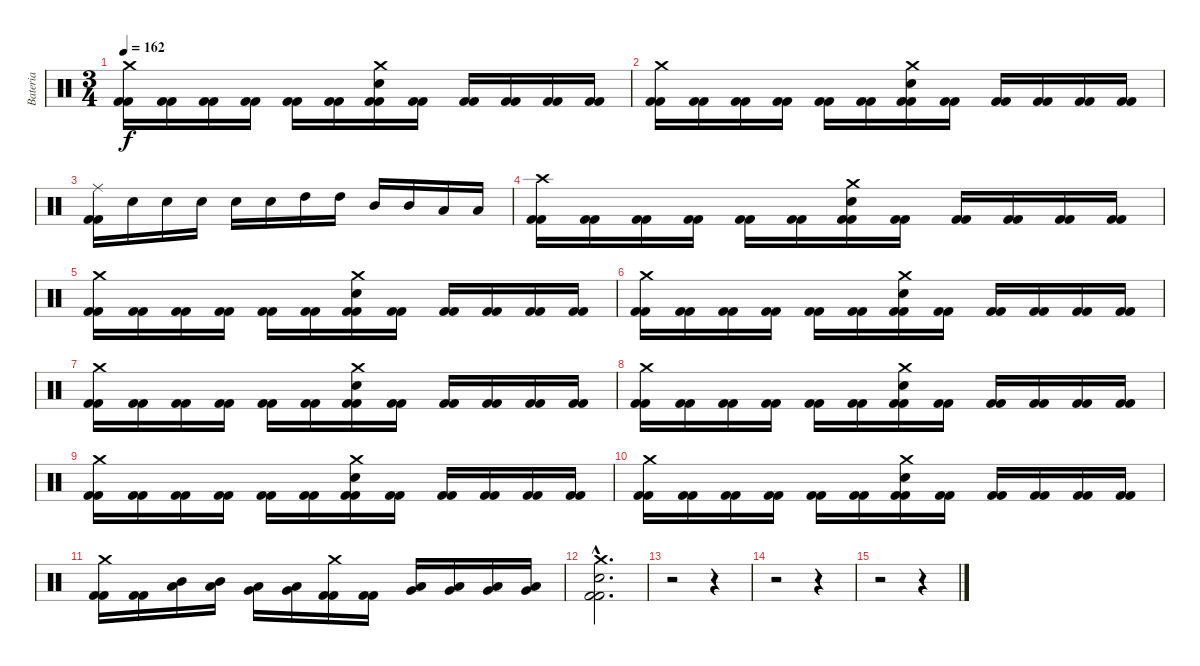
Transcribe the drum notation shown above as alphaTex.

\track ("Bateria" "Bateria") {instrument percussion}
\staff {score}
\articulation defaults
\ts (3 4)
\tempo 162
\clef neutral
\ks c
("Crash medium (hit)" "Kick (hit) 2" "Kick (hit) 2").16{dy f} ("Kick (hit) 2" "Kick (hit) 2").16 ("Kick (hit) 2" "Kick (hit) 2").16 ("Kick (hit) 2" "Kick (hit) 2").16 ("Kick (hit) 2" "Kick (hit) 2").16 ("Kick (hit) 2" "Kick (hit) 2").16 ("Crash medium (hit)" "Electric Snare (hit)" "Kick (hit) 2" "Kick (hit) 2").16 ("Kick (hit) 2" "Kick (hit) 2").16 ("Kick (hit) 2" "Kick (hit) 2").16 ("Kick (hit) 2" "Kick (hit) 2").16 ("Kick (hit) 2" "Kick (hit) 2").16 ("Kick (hit) 2" "Kick (hit) 2").16 |
("Crash medium (hit)" "Kick (hit) 2" "Kick (hit) 2").16 ("Kick (hit) 2" "Kick (hit) 2").16 ("Kick (hit) 2" "Kick (hit) 2").16 ("Kick (hit) 2" "Kick (hit) 2").16 ("Kick (hit) 2" "Kick (hit) 2").16 ("Kick (hit) 2" "Kick (hit) 2").16 ("Crash medium (hit)" "Electric Snare (hit)" "Kick (hit) 2" "Kick (hit) 2").16 ("Kick (hit) 2" "Kick (hit) 2").16 ("Kick (hit) 2" "Kick (hit) 2").16 ("Kick (hit) 2" "Kick (hit) 2").16 ("Kick (hit) 2" "Kick (hit) 2").16 ("Kick (hit) 2" "Kick (hit) 2").16 |
("Ride (middle)" "Kick (hit) 2" "Kick (hit) 2").16 "Electric Snare (hit)".16 "Electric Snare (hit)".16 "Electric Snare (hit)".16 "Electric Snare (hit)".16 "Electric Snare (hit)".16 "High Tom (hit)".16 "High Tom (hit)".16 "Mid Tom (hit)".16 "Mid Tom (hit)".16 "Low Tom (hit)".16 "Low Tom (hit)".16 |
("Crash high (hit)" "Kick (hit) 2" "Kick (hit) 2").16 ("Kick (hit) 2" "Kick (hit) 2").16 ("Kick (hit) 2" "Kick (hit) 2").16 ("Kick (hit) 2" "Kick (hit) 2").16 ("Kick (hit) 2" "Kick (hit) 2").16 ("Kick (hit) 2" "Kick (hit) 2").16 ("Crash medium (hit)" "Electric Snare (hit)" "Kick (hit) 2" "Kick (hit) 2").16 ("Kick (hit) 2" "Kick (hit) 2").16 ("Kick (hit) 2" "Kick (hit) 2").16 ("Kick (hit) 2" "Kick (hit) 2").16 ("Kick (hit) 2" "Kick (hit) 2").16 ("Kick (hit) 2" "Kick (hit) 2").16 |
("Crash medium (hit)" "Kick (hit) 2" "Kick (hit) 2").16 ("Kick (hit) 2" "Kick (hit) 2").16 ("Kick (hit) 2" "Kick (hit) 2").16 ("Kick (hit) 2" "Kick (hit) 2").16 ("Kick (hit) 2" "Kick (hit) 2").16 ("Kick (hit) 2" "Kick (hit) 2").16 ("Crash medium (hit)" "Electric Snare (hit)" "Kick (hit) 2" "Kick (hit) 2").16 ("Kick (hit) 2" "Kick (hit) 2").16 ("Kick (hit) 2" "Kick (hit) 2").16 ("Kick (hit) 2" "Kick (hit) 2").16 ("Kick (hit) 2" "Kick (hit) 2").16 ("Kick (hit) 2" "Kick (hit) 2").16 |
("Crash medium (hit)" "Kick (hit) 2" "Kick (hit) 2").16 ("Kick (hit) 2" "Kick (hit) 2").16 ("Kick (hit) 2" "Kick (hit) 2").16 ("Kick (hit) 2" "Kick (hit) 2").16 ("Kick (hit) 2" "Kick (hit) 2").16 ("Kick (hit) 2" "Kick (hit) 2").16 ("Crash medium (hit)" "Electric Snare (hit)" "Kick (hit) 2" "Kick (hit) 2").16 ("Kick (hit) 2" "Kick (hit) 2").16 ("Kick (hit) 2" "Kick (hit) 2").16 ("Kick (hit) 2" "Kick (hit) 2").16 ("Kick (hit) 2" "Kick (hit) 2").16 ("Kick (hit) 2" "Kick (hit) 2").16 |
("Crash medium (hit)" "Kick (hit) 2" "Kick (hit) 2").16 ("Kick (hit) 2" "Kick (hit) 2").16 ("Kick (hit) 2" "Kick (hit) 2").16 ("Kick (hit) 2" "Kick (hit) 2").16 ("Kick (hit) 2" "Kick (hit) 2").16 ("Kick (hit) 2" "Kick (hit) 2").16 ("Crash medium (hit)" "Electric Snare (hit)" "Kick (hit) 2" "Kick (hit) 2").16 ("Kick (hit) 2" "Kick (hit) 2").16 ("Kick (hit) 2" "Kick (hit) 2").16 ("Kick (hit) 2" "Kick (hit) 2").16 ("Kick (hit) 2" "Kick (hit) 2").16 ("Kick (hit) 2" "Kick (hit) 2").16 |
("Crash medium (hit)" "Kick (hit) 2" "Kick (hit) 2").16 ("Kick (hit) 2" "Kick (hit) 2").16 ("Kick (hit) 2" "Kick (hit) 2").16 ("Kick (hit) 2" "Kick (hit) 2").16 ("Kick (hit) 2" "Kick (hit) 2").16 ("Kick (hit) 2" "Kick (hit) 2").16 ("Crash medium (hit)" "Electric Snare (hit)" "Kick (hit) 2" "Kick (hit) 2").16 ("Kick (hit) 2" "Kick (hit) 2").16 ("Kick (hit) 2" "Kick (hit) 2").16 ("Kick (hit) 2" "Kick (hit) 2").16 ("Kick (hit) 2" "Kick (hit) 2").16 ("Kick (hit) 2" "Kick (hit) 2").16 |
("Crash medium (hit)" "Kick (hit) 2" "Kick (hit) 2").16 ("Kick (hit) 2" "Kick (hit) 2").16 ("Kick (hit) 2" "Kick (hit) 2").16 ("Kick (hit) 2" "Kick (hit) 2").16 ("Kick (hit) 2" "Kick (hit) 2").16 ("Kick (hit) 2" "Kick (hit) 2").16 ("Crash medium (hit)" "Electric Snare (hit)" "Kick (hit) 2" "Kick (hit) 2").16 ("Kick (hit) 2" "Kick (hit) 2").16 ("Kick (hit) 2" "Kick (hit) 2").16 ("Kick (hit) 2" "Kick (hit) 2").16 ("Kick (hit) 2" "Kick (hit) 2").16 ("Kick (hit) 2" "Kick (hit) 2").16 |
("Crash medium (hit)" "Kick (hit) 2" "Kick (hit) 2").16 ("Kick (hit) 2" "Kick (hit) 2").16 ("Kick (hit) 2" "Kick (hit) 2").16 ("Kick (hit) 2" "Kick (hit) 2").16 ("Kick (hit) 2" "Kick (hit) 2").16 ("Kick (hit) 2" "Kick (hit) 2").16 ("Crash medium (hit)" "Electric Snare (hit)" "Kick (hit) 2" "Kick (hit) 2").16 ("Kick (hit) 2" "Kick (hit) 2").16 ("Kick (hit) 2" "Kick (hit) 2").16 ("Kick (hit) 2" "Kick (hit) 2").16 ("Kick (hit) 2" "Kick (hit) 2").16 ("Kick (hit) 2" "Kick (hit) 2").16 |
("Crash medium (hit)" "Kick (hit) 2" "Kick (hit) 2").16 ("Kick (hit) 2" "Kick (hit) 2").16 ("Low Tom (hit)" "Mid Tom (hit)").16 ("Low Tom (hit)" "Mid Tom (hit)").16 ("Very Low Tom (hit)" "Low Tom (hit)").16 ("Very Low Tom (hit)" "Low Tom (hit)").16 ("Crash medium (hit)" "Kick (hit) 2" "Kick (hit) 2").16 ("Kick (hit) 2" "Kick (hit) 2").16 ("Very Low Tom (hit)" "Low Tom (hit)").16 ("Very Low Tom (hit)" "Low Tom (hit)").16 ("Low Floor Tom (hit)" "Very Low Tom (hit)").16 ("Low Floor Tom (hit)" "Very Low Tom (hit)").16 |
("Kick (hit) 2"{hac} "Kick (hit) 2"{hac} "Snare (hit) 2"{hac} "Crash medium (hit)"{hac}).2{d} |
r.2 r.4 |
r.2 r.4 |
r.2 r.4
